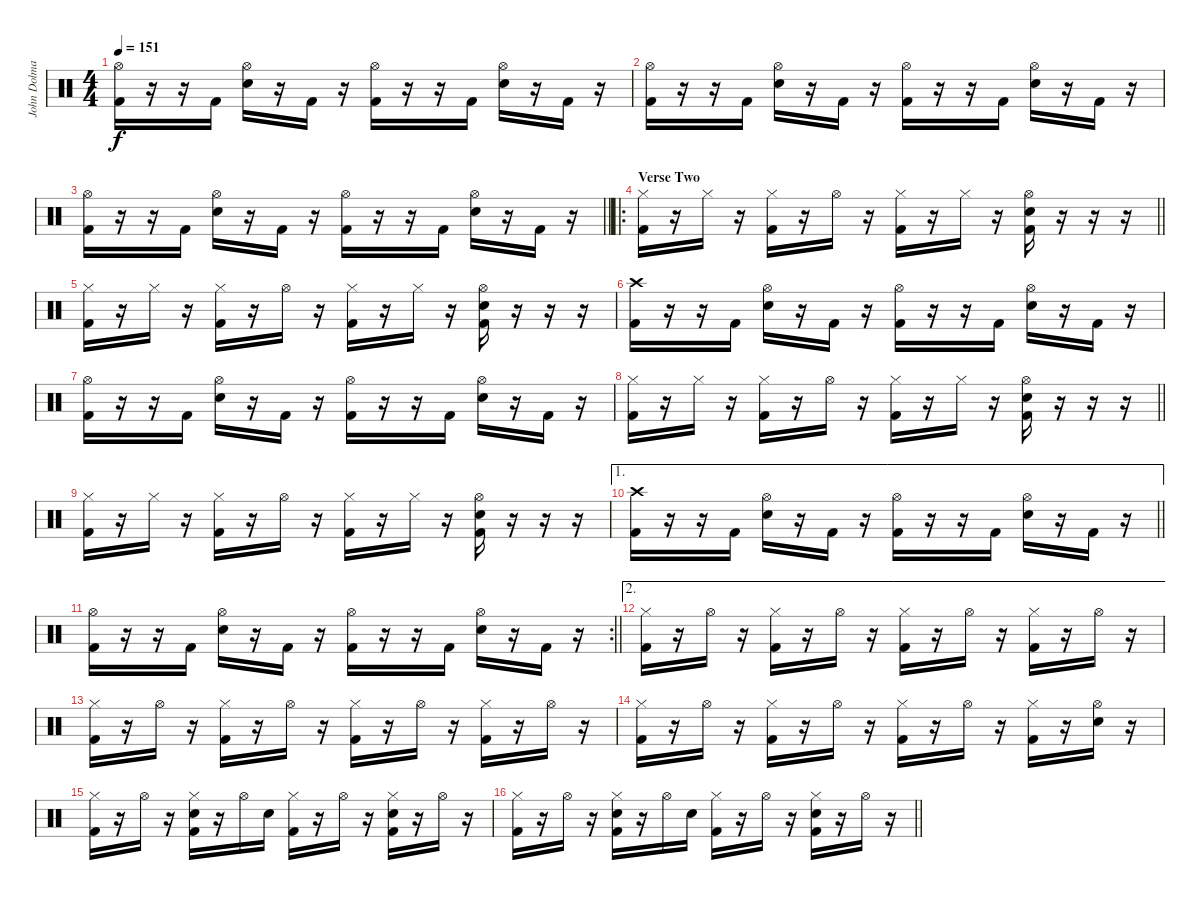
\track ("John Dolmayan" "John Dolma") {instrument percussion}
\staff {score}
\articulation defaults
\ts (4 4)
\tempo 151
\clef neutral
\ks c
("Hi-Hat (open)" "Kick (hit) 2").16{dy f} r.16 r.16 "Kick (hit) 2".16 ("Hi-Hat (open)" "Snare (hit) 2").16 r.16 "Kick (hit) 2".16 r.16 ("Hi-Hat (open)" "Kick (hit) 2").16 r.16 r.16 "Kick (hit) 2".16 ("Hi-Hat (open)" "Snare (hit) 2").16 r.16 "Kick (hit) 2".16 r.16 |
("Hi-Hat (open)" "Kick (hit) 2").16 r.16 r.16 "Kick (hit) 2".16 ("Hi-Hat (open)" "Snare (hit) 2").16 r.16 "Kick (hit) 2".16 r.16 ("Hi-Hat (open)" "Kick (hit) 2").16 r.16 r.16 "Kick (hit) 2".16 ("Hi-Hat (open)" "Snare (hit) 2").16 r.16 "Kick (hit) 2".16 r.16 |
\barLineRight lightlight
("Hi-Hat (open)" "Kick (hit) 2").16 r.16 r.16 "Kick (hit) 2".16 ("Hi-Hat (open)" "Snare (hit) 2").16 r.16 "Kick (hit) 2".16 r.16 ("Hi-Hat (open)" "Kick (hit) 2").16 r.16 r.16 "Kick (hit) 2".16 ("Hi-Hat (open)" "Snare (hit) 2").16 r.16 "Kick (hit) 2".16 r.16 |
\ro
\section ("" "Verse Two")
\barLineRight lightlight
("Hi-Hat (closed)" "Kick (hit) 2").16 r.16 "Hi-Hat (closed)".16 r.16 ("Hi-Hat (closed)" "Kick (hit) 2").16 r.16 "Hi-Hat (open)".16 r.16 ("Hi-Hat (closed)" "Kick (hit) 2").16 r.16 "Hi-Hat (closed)".16 r.16 ("Hi-Hat (open)" "Snare (hit) 2" "Kick (hit) 2").16 r.16 r.16 r.16 |
("Hi-Hat (closed)" "Kick (hit) 2").16 r.16 "Hi-Hat (closed)".16 r.16 ("Hi-Hat (closed)" "Kick (hit) 2").16 r.16 "Hi-Hat (open)".16 r.16 ("Hi-Hat (closed)" "Kick (hit) 2").16 r.16 "Hi-Hat (closed)".16 r.16 ("Hi-Hat (open)" "Snare (hit) 2" "Kick (hit) 2").16 r.16 r.16 r.16 |
("Crash high (hit)" "Kick (hit) 2").16 r.16 r.16 "Kick (hit) 2".16 ("Hi-Hat (open)" "Snare (hit) 2").16 r.16 "Kick (hit) 2".16 r.16 ("Hi-Hat (open)" "Kick (hit) 2").16 r.16 r.16 "Kick (hit) 2".16 ("Hi-Hat (open)" "Snare (hit) 2").16 r.16 "Kick (hit) 2".16 r.16 |
("Hi-Hat (open)" "Kick (hit) 2").16 r.16 r.16 "Kick (hit) 2".16 ("Hi-Hat (open)" "Snare (hit) 2").16 r.16 "Kick (hit) 2".16 r.16 ("Hi-Hat (open)" "Kick (hit) 2").16 r.16 r.16 "Kick (hit) 2".16 ("Hi-Hat (open)" "Snare (hit) 2").16 r.16 "Kick (hit) 2".16 r.16 |
\barLineRight lightlight
("Hi-Hat (closed)" "Kick (hit) 2").16 r.16 "Hi-Hat (closed)".16 r.16 ("Hi-Hat (closed)" "Kick (hit) 2").16 r.16 "Hi-Hat (open)".16 r.16 ("Hi-Hat (closed)" "Kick (hit) 2").16 r.16 "Hi-Hat (closed)".16 r.16 ("Hi-Hat (open)" "Snare (hit) 2" "Kick (hit) 2").16 r.16 r.16 r.16 |
("Hi-Hat (closed)" "Kick (hit) 2").16 r.16 "Hi-Hat (closed)".16 r.16 ("Hi-Hat (closed)" "Kick (hit) 2").16 r.16 "Hi-Hat (open)".16 r.16 ("Hi-Hat (closed)" "Kick (hit) 2").16 r.16 "Hi-Hat (closed)".16 r.16 ("Hi-Hat (open)" "Snare (hit) 2" "Kick (hit) 2").16 r.16 r.16 r.16 |
\ae 1
\barLineRight lightlight
("Crash high (hit)" "Kick (hit) 2").16 r.16 r.16 "Kick (hit) 2".16 ("Hi-Hat (open)" "Snare (hit) 2").16 r.16 "Kick (hit) 2".16 r.16 ("Hi-Hat (open)" "Kick (hit) 2").16 r.16 r.16 "Kick (hit) 2".16 ("Hi-Hat (open)" "Snare (hit) 2").16 r.16 "Kick (hit) 2".16 r.16 |
\rc 2
\barLineRight lightlight
("Hi-Hat (open)" "Kick (hit) 2").16 r.16 r.16 "Kick (hit) 2".16 ("Hi-Hat (open)" "Snare (hit) 2").16 r.16 "Kick (hit) 2".16 r.16 ("Hi-Hat (open)" "Kick (hit) 2").16 r.16 r.16 "Kick (hit) 2".16 ("Hi-Hat (open)" "Snare (hit) 2").16 r.16 "Kick (hit) 2".16 r.16 |
\ae 2
("Hi-Hat (closed)" "Kick (hit) 2").16 r.16 "Hi-Hat (open)".16 r.16 ("Hi-Hat (closed)" "Kick (hit) 2").16 r.16 "Hi-Hat (open)".16 r.16 ("Hi-Hat (closed)" "Kick (hit) 2").16 r.16 "Hi-Hat (open)".16 r.16 ("Hi-Hat (closed)" "Kick (hit) 2").16 r.16 "Hi-Hat (open)".16 r.16 |
("Hi-Hat (closed)" "Kick (hit) 2").16 r.16 "Hi-Hat (open)".16 r.16 ("Hi-Hat (closed)" "Kick (hit) 2").16 r.16 "Hi-Hat (open)".16 r.16 ("Hi-Hat (closed)" "Kick (hit) 2").16 r.16 "Hi-Hat (open)".16 r.16 ("Hi-Hat (closed)" "Kick (hit) 2").16 r.16 "Hi-Hat (open)".16 r.16 |
("Hi-Hat (closed)" "Kick (hit) 2").16 r.16 "Hi-Hat (open)".16 r.16 ("Hi-Hat (closed)" "Kick (hit) 2").16 r.16 "Hi-Hat (open)".16 r.16 ("Hi-Hat (closed)" "Kick (hit) 2").16 r.16 "Hi-Hat (open)".16 r.16 ("Hi-Hat (closed)" "Kick (hit) 2").16 r.16 ("Hi-Hat (open)" "Snare (hit) 2").16 r.16 |
("Hi-Hat (closed)" "Kick (hit) 2").16 r.16 "Hi-Hat (open)".16 r.16 ("Hi-Hat (closed)" "Snare (hit) 2" "Kick (hit) 2").16 r.16 "Hi-Hat (open)".16 "Snare (hit) 2".16 ("Hi-Hat (closed)" "Kick (hit) 2").16 r.16 "Hi-Hat (open)".16 r.16 ("Hi-Hat (closed)" "Snare (hit) 2" "Kick (hit) 2").16 r.16 "Hi-Hat (open)".16 r.16 |
\barLineRight lightlight
("Hi-Hat (closed)" "Kick (hit) 2").16 r.16 "Hi-Hat (open)".16 r.16 ("Hi-Hat (closed)" "Snare (hit) 2" "Kick (hit) 2").16 r.16 "Hi-Hat (open)".16 "Snare (hit) 2".16 ("Hi-Hat (closed)" "Kick (hit) 2").16 r.16 "Hi-Hat (open)".16 r.16 ("Hi-Hat (closed)" "Snare (hit) 2" "Kick (hit) 2").16 r.16 "Hi-Hat (open)".16 r.16
